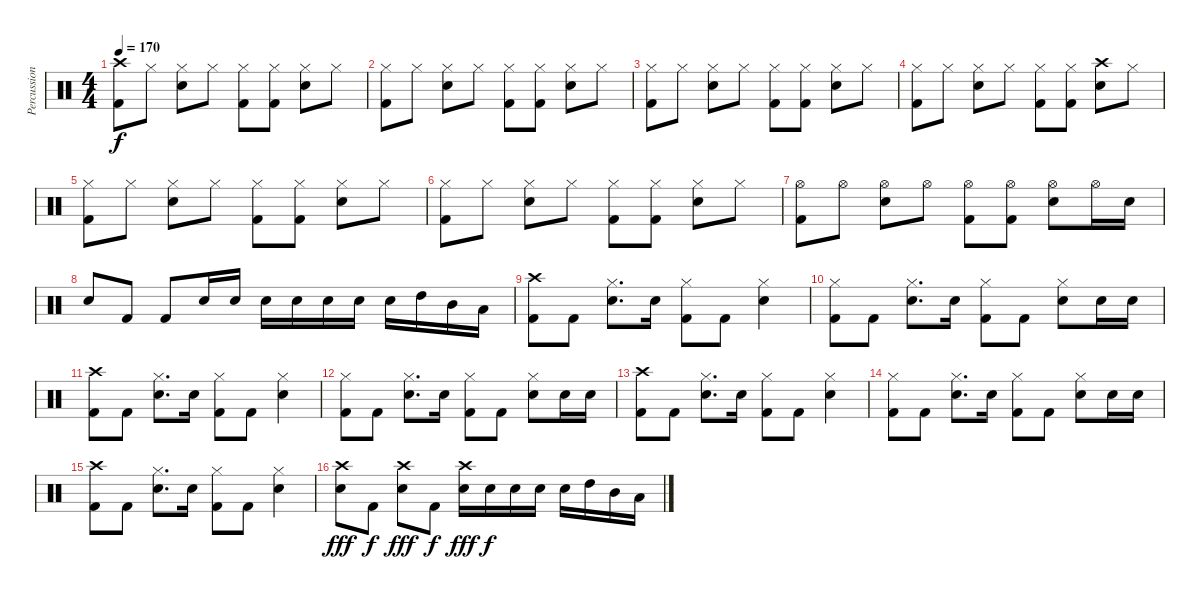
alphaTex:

\track ("Percussion" "Percussion") {instrument percussion}
\staff {score}
\articulation defaults
\ts (4 4)
\tempo 170
\clef neutral
\ks c
("Crash high (hit)" "Kick (hit) 2").8{dy f} "Hi-Hat (closed)".8 ("Hi-Hat (closed)" "Electric Snare (hit)").8 "Hi-Hat (closed)".8 ("Hi-Hat (closed)" "Kick (hit) 2").8 ("Hi-Hat (closed)" "Kick (hit) 2").8 ("Hi-Hat (closed)" "Electric Snare (hit)").8 "Hi-Hat (closed)".8 |
("Hi-Hat (closed)" "Kick (hit) 2").8 "Hi-Hat (closed)".8 ("Hi-Hat (closed)" "Electric Snare (hit)").8 "Hi-Hat (closed)".8 ("Hi-Hat (closed)" "Kick (hit) 2").8 ("Hi-Hat (closed)" "Kick (hit) 2").8 ("Hi-Hat (closed)" "Electric Snare (hit)").8 "Hi-Hat (closed)".8 |
("Hi-Hat (closed)" "Kick (hit) 2").8 "Hi-Hat (closed)".8 ("Hi-Hat (closed)" "Electric Snare (hit)").8 "Hi-Hat (closed)".8 ("Hi-Hat (closed)" "Kick (hit) 2").8 ("Hi-Hat (closed)" "Kick (hit) 2").8 ("Hi-Hat (closed)" "Electric Snare (hit)").8 "Hi-Hat (closed)".8 |
("Hi-Hat (closed)" "Kick (hit) 2").8 "Hi-Hat (closed)".8 ("Hi-Hat (closed)" "Electric Snare (hit)").8 "Hi-Hat (closed)".8 ("Hi-Hat (closed)" "Kick (hit) 2").8 ("Hi-Hat (closed)" "Kick (hit) 2").8 ("Crash high (hit)" "Electric Snare (hit)").8 "Hi-Hat (closed)".8 |
("Hi-Hat (closed)" "Kick (hit) 2").8 "Hi-Hat (closed)".8 ("Hi-Hat (closed)" "Electric Snare (hit)").8 "Hi-Hat (closed)".8 ("Hi-Hat (closed)" "Kick (hit) 2").8 ("Hi-Hat (closed)" "Kick (hit) 2").8 ("Hi-Hat (closed)" "Electric Snare (hit)").8 "Hi-Hat (closed)".8 |
("Hi-Hat (closed)" "Kick (hit) 2").8 "Hi-Hat (closed)".8 ("Hi-Hat (closed)" "Electric Snare (hit)").8 "Hi-Hat (closed)".8 ("Hi-Hat (closed)" "Kick (hit) 2").8 ("Hi-Hat (closed)" "Kick (hit) 2").8 ("Hi-Hat (closed)" "Electric Snare (hit)").8 "Hi-Hat (closed)".8 |
("Hi-Hat (open)" "Kick (hit) 2").8 "Hi-Hat (open)".8 ("Hi-Hat (open)" "Electric Snare (hit)").8 "Hi-Hat (open)".8 ("Hi-Hat (open)" "Kick (hit) 2").8 ("Hi-Hat (open)" "Kick (hit) 2").8 ("Hi-Hat (open)" "Electric Snare (hit)").8 "Hi-Hat (open)".16 "Electric Snare (hit)".16 |
"Electric Snare (hit)".8 "Kick (hit) 2".8 "Kick (hit) 2".8 "Electric Snare (hit)".16 "Electric Snare (hit)".16 "Electric Snare (hit)".16 "Electric Snare (hit)".16 "Electric Snare (hit)".16 "Electric Snare (hit)".16 "Electric Snare (hit)".16 "High Tom (hit)".16 "Mid Tom (hit)".16 "Low Tom (hit)".16 |
("Crash high (hit)" "Kick (hit) 2").8 "Kick (hit) 2".8 ("Hi-Hat (closed)" "Electric Snare (hit)").8{d} "Electric Snare (hit)".16 ("Hi-Hat (closed)" "Kick (hit) 2").8 "Kick (hit) 2".8 ("Hi-Hat (closed)" "Electric Snare (hit)").4 |
("Hi-Hat (closed)" "Kick (hit) 2").8 "Kick (hit) 2".8 ("Hi-Hat (closed)" "Electric Snare (hit)").8{d} "Electric Snare (hit)".16 ("Hi-Hat (closed)" "Kick (hit) 2").8 "Kick (hit) 2".8 ("Hi-Hat (closed)" "Electric Snare (hit)").8 "Electric Snare (hit)".16 "Electric Snare (hit)".16 |
("Crash high (hit)" "Kick (hit) 2").8 "Kick (hit) 2".8 ("Hi-Hat (closed)" "Electric Snare (hit)").8{d} "Electric Snare (hit)".16 ("Hi-Hat (closed)" "Kick (hit) 2").8 "Kick (hit) 2".8 ("Hi-Hat (closed)" "Electric Snare (hit)").4 |
("Hi-Hat (closed)" "Kick (hit) 2").8 "Kick (hit) 2".8 ("Hi-Hat (closed)" "Electric Snare (hit)").8{d} "Electric Snare (hit)".16 ("Hi-Hat (closed)" "Kick (hit) 2").8 "Kick (hit) 2".8 ("Hi-Hat (closed)" "Electric Snare (hit)").8 "Electric Snare (hit)".16 "Electric Snare (hit)".16 |
("Crash high (hit)" "Kick (hit) 2").8 "Kick (hit) 2".8 ("Hi-Hat (closed)" "Electric Snare (hit)").8{d} "Electric Snare (hit)".16 ("Hi-Hat (closed)" "Kick (hit) 2").8 "Kick (hit) 2".8 ("Hi-Hat (closed)" "Electric Snare (hit)").4 |
("Hi-Hat (closed)" "Kick (hit) 2").8 "Kick (hit) 2".8 ("Hi-Hat (closed)" "Electric Snare (hit)").8{d} "Electric Snare (hit)".16 ("Hi-Hat (closed)" "Kick (hit) 2").8 "Kick (hit) 2".8 ("Hi-Hat (closed)" "Electric Snare (hit)").8 "Electric Snare (hit)".16 "Electric Snare (hit)".16 |
("Crash high (hit)" "Kick (hit) 2").8 "Kick (hit) 2".8 ("Hi-Hat (closed)" "Electric Snare (hit)").8{d} "Electric Snare (hit)".16 ("Hi-Hat (closed)" "Kick (hit) 2").8 "Kick (hit) 2".8 ("Hi-Hat (closed)" "Electric Snare (hit)").4 |
("Crash high (hit)" "Electric Snare (hit)").8{dy fff} "Kick (hit) 2".8{dy f} ("Crash high (hit)" "Electric Snare (hit)").8{dy fff} "Kick (hit) 2".8{dy f} ("Crash high (hit)" "Electric Snare (hit)").16{dy fff} "Electric Snare (hit)".16{dy f} "Electric Snare (hit)".16 "Electric Snare (hit)".16 "Electric Snare (hit)".16 "High Tom (hit)".16 "Mid Tom (hit)".16 "Low Tom (hit)".16
